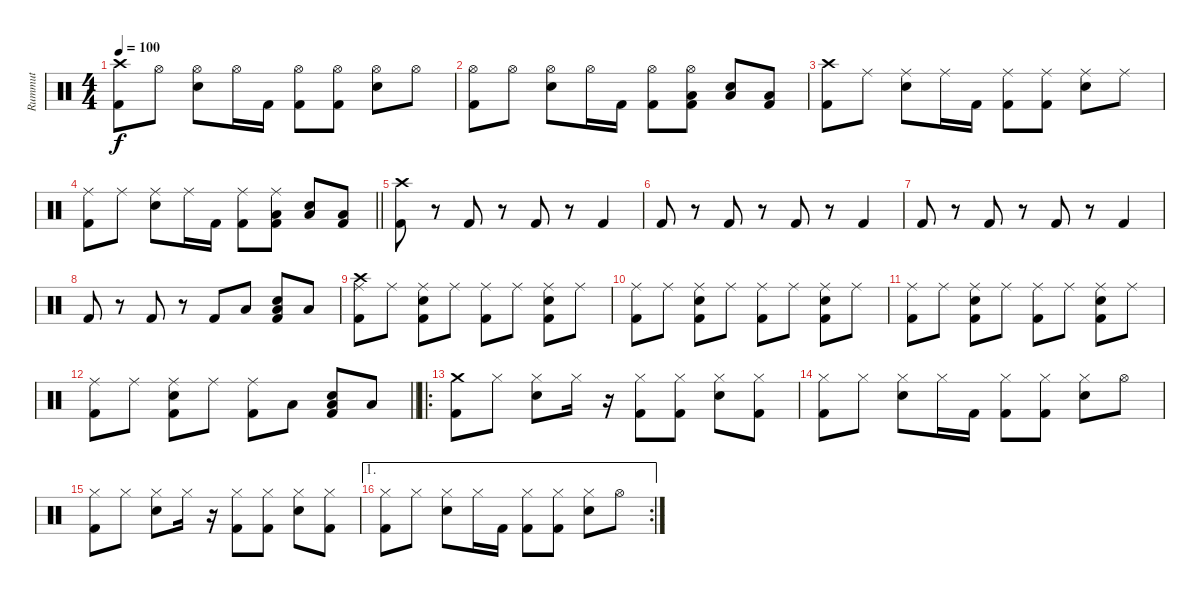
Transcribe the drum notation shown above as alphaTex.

\track ("Rummut" "Rummut") {instrument percussion}
\staff {score}
\articulation defaults
\ts (4 4)
\tempo 100
\clef neutral
\ks c
("Crash high (hit)" "Kick (hit) 2").8{dy f} "Hi-Hat (open)".8 ("Hi-Hat (open)" "Snare (hit) 2").8 "Hi-Hat (open)".16 "Kick (hit) 2".16 ("Hi-Hat (open)" "Kick (hit) 2").8 ("Hi-Hat (open)" "Kick (hit) 2").8 ("Hi-Hat (open)" "Snare (hit) 2").8 "Hi-Hat (open)".8 |
("Hi-Hat (open)" "Kick (hit) 2").8 "Hi-Hat (open)".8 ("Hi-Hat (open)" "Snare (hit) 2").8 "Hi-Hat (open)".16 "Kick (hit) 2".16 ("Hi-Hat (open)" "Kick (hit) 2").8 ("Hi-Hat (open)" "Low Floor Tom (hit)" "Kick (hit) 2").8 ("Snare (hit) 2" "Low Floor Tom (hit)").8 ("Low Floor Tom (hit)" "Kick (hit) 2").8 |
("Crash high (hit)" "Kick (hit) 2").8 "Ride (middle)".8 ("Ride (middle)" "Snare (hit) 2").8 "Ride (middle)".16 "Kick (hit) 2".16 ("Ride (middle)" "Kick (hit) 2").8 ("Ride (middle)" "Kick (hit) 2").8 ("Ride (middle)" "Snare (hit) 2").8 "Ride (middle)".8 |
\barLineRight lightlight
("Ride (middle)" "Kick (hit) 2").8 "Ride (middle)".8 ("Ride (middle)" "Snare (hit) 2").8 "Ride (middle)".16 "Kick (hit) 2".16 ("Ride (middle)" "Kick (hit) 2").8 ("Ride (middle)" "Low Floor Tom (hit)" "Kick (hit) 2").8 ("Snare (hit) 2" "Low Floor Tom (hit)").8 ("Low Floor Tom (hit)" "Kick (hit) 2").8 |
("Crash high (hit)" "Kick (hit) 2").8 r.8 "Kick (hit) 2".8 r.8 "Kick (hit) 2".8 r.8 "Kick (hit) 2".4 |
"Kick (hit) 2".8 r.8 "Kick (hit) 2".8 r.8 "Kick (hit) 2".8 r.8 "Kick (hit) 2".4 |
"Kick (hit) 2".8 r.8 "Kick (hit) 2".8 r.8 "Kick (hit) 2".8 r.8 "Kick (hit) 2".4 |
"Kick (hit) 2".8 r.8 "Kick (hit) 2".8 r.8 "Kick (hit) 2".8 "Low Floor Tom (hit)".8 ("Snare (hit) 2" "Low Floor Tom (hit)" "Kick (hit) 2").8 "Low Floor Tom (hit)".8 |
("Crash high (hit)" "Ride (middle)" "Kick (hit) 2").8 "Ride (middle)".8 ("Ride (middle)" "Snare (hit) 2" "Kick (hit) 2").8 "Ride (middle)".8 ("Ride (middle)" "Kick (hit) 2").8 "Ride (middle)".8 ("Ride (middle)" "Snare (hit) 2" "Kick (hit) 2").8 "Ride (middle)".8 |
("Ride (middle)" "Kick (hit) 2").8 "Ride (middle)".8 ("Ride (middle)" "Snare (hit) 2" "Kick (hit) 2").8 "Ride (middle)".8 ("Ride (middle)" "Kick (hit) 2").8 "Ride (middle)".8 ("Ride (middle)" "Snare (hit) 2" "Kick (hit) 2").8 "Ride (middle)".8 |
("Ride (middle)" "Kick (hit) 2").8 "Ride (middle)".8 ("Ride (middle)" "Snare (hit) 2" "Kick (hit) 2").8 "Ride (middle)".8 ("Ride (middle)" "Kick (hit) 2").8 "Ride (middle)".8 ("Ride (middle)" "Snare (hit) 2" "Kick (hit) 2").8 "Ride (middle)".8 |
\barLineRight lightlight
("Ride (middle)" "Kick (hit) 2").8 "Ride (middle)".8 ("Ride (middle)" "Snare (hit) 2" "Kick (hit) 2").8 "Ride (middle)".8 ("Ride (middle)" "Kick (hit) 2").8 "Low Floor Tom (hit)".8 ("Snare (hit) 2" "Low Floor Tom (hit)" "Kick (hit) 2").8 "Low Floor Tom (hit)".8 |
\ro
("Crash medium (hit)" "Kick (hit) 2").8 "Hi-Hat (closed)".8 ("Hi-Hat (closed)" "Snare (hit) 2").8 "Hi-Hat (closed)".16 r.16 ("Hi-Hat (closed)" "Kick (hit) 2").8 ("Hi-Hat (closed)" "Kick (hit) 2").8 ("Hi-Hat (closed)" "Snare (hit) 2").8 ("Hi-Hat (closed)" "Kick (hit) 2").8 |
("Hi-Hat (closed)" "Kick (hit) 2").8 "Hi-Hat (closed)".8 ("Hi-Hat (closed)" "Snare (hit) 2").8 "Hi-Hat (closed)".16 "Kick (hit) 2".16 ("Hi-Hat (closed)" "Kick (hit) 2").8 ("Hi-Hat (closed)" "Kick (hit) 2").8 ("Hi-Hat (closed)" "Snare (hit) 2").8 "Hi-Hat (open)".8 |
("Hi-Hat (closed)" "Kick (hit) 2").8 "Hi-Hat (closed)".8 ("Hi-Hat (closed)" "Snare (hit) 2").8 "Hi-Hat (closed)".16 r.16 ("Hi-Hat (closed)" "Kick (hit) 2").8 ("Hi-Hat (closed)" "Kick (hit) 2").8 ("Hi-Hat (closed)" "Snare (hit) 2").8 ("Hi-Hat (closed)" "Kick (hit) 2").8 |
\ae 1
\rc 2
("Hi-Hat (closed)" "Kick (hit) 2").8 "Hi-Hat (closed)".8 ("Hi-Hat (closed)" "Snare (hit) 2").8 "Hi-Hat (closed)".16 "Kick (hit) 2".16 ("Hi-Hat (closed)" "Kick (hit) 2").8 ("Hi-Hat (closed)" "Kick (hit) 2").8 ("Hi-Hat (closed)" "Snare (hit) 2").8 "Hi-Hat (open)".8
